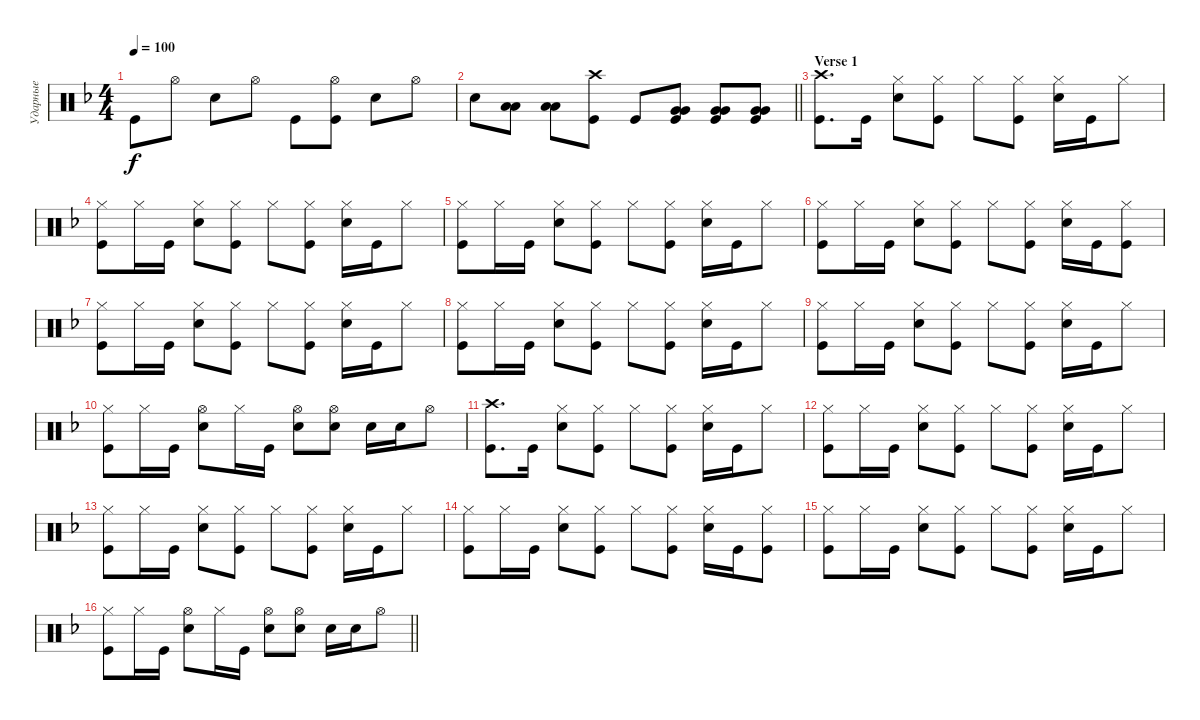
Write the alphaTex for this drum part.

\track ("Ударные" "Ударные") {instrument percussion}
\staff {score}
\articulation defaults
\ts (4 4)
\tempo 100
\clef neutral
\ks dminor "Kick (hit)".8{dy f} "Hi-Hat (open)".8 "Snare (hit) 2".8 "Hi-Hat (open)".8 "Kick (hit)".8
("Hi-Hat (open)" "Kick (hit)").8 "Snare (hit) 2".8 "Hi-Hat (open)".8 |
\barLineRight lightlight "Snare (hit) 2".8
("Low Tom (hit)" "Low Tom (hit)").8{bd 120} ("Low Tom (hit)" "Low Tom (hit)").8{bd 120} ("Kick (hit)" "Crash high (hit)").8 "Kick (hit)".8 ("Kick (hit)" "Very Low Tom (hit)" "Very Low Tom (hit)").8{bd 120} ("Kick (hit)" "Very Low Tom (hit)" "Very Low Tom (hit)").8{bd 120} ("Kick (hit)" "Very Low Tom (hit)" "Very Low Tom (hit)").8{bd 120} |
\section ("" "Verse 1")
("Kick (hit)" "Crash high (hit)").8{d} "Kick (hit)".16 ("Snare (hit) 2" "Hi-Hat (closed)").8 ("Kick (hit)" "Hi-Hat (closed)").8 "Hi-Hat (closed)".8 ("Hi-Hat (closed)" "Kick (hit)").8 ("Snare (hit) 2" "Hi-Hat (closed)").16 "Kick (hit)".16 "Hi-Hat (closed)".8 |
("Kick (hit)" "Hi-Hat (closed)").8 "Hi-Hat (closed)".16 "Kick (hit)".16 ("Snare (hit) 2" "Hi-Hat (closed)").8 ("Kick (hit)" "Hi-Hat (closed)").8 "Hi-Hat (closed)".8 ("Hi-Hat (closed)" "Kick (hit)").8 ("Snare (hit) 2" "Hi-Hat (closed)").16 "Kick (hit)".16 "Hi-Hat (closed)".8 |
("Kick (hit)" "Hi-Hat (closed)").8 "Hi-Hat (closed)".16 "Kick (hit)".16 ("Snare (hit) 2" "Hi-Hat (closed)").8 ("Kick (hit)" "Hi-Hat (closed)").8 "Hi-Hat (closed)".8 ("Hi-Hat (closed)" "Kick (hit)").8 ("Snare (hit) 2" "Hi-Hat (closed)").16 "Kick (hit)".16 "Hi-Hat (closed)".8 |
("Kick (hit)" "Hi-Hat (closed)").8 "Hi-Hat (closed)".16 "Kick (hit)".16 ("Snare (hit) 2" "Hi-Hat (closed)").8 ("Kick (hit)" "Hi-Hat (closed)").8 "Hi-Hat (closed)".8 ("Hi-Hat (closed)" "Kick (hit)").8 ("Snare (hit) 2" "Hi-Hat (closed)").16 "Kick (hit)".16 ("Hi-Hat (closed)" "Kick (hit)").8 |
("Kick (hit)" "Hi-Hat (closed)").8 "Hi-Hat (closed)".16 "Kick (hit)".16 ("Snare (hit) 2" "Hi-Hat (closed)").8 ("Kick (hit)" "Hi-Hat (closed)").8 "Hi-Hat (closed)".8 ("Hi-Hat (closed)" "Kick (hit)").8 ("Snare (hit) 2" "Hi-Hat (closed)").16 "Kick (hit)".16 "Hi-Hat (closed)".8 |
("Kick (hit)" "Hi-Hat (closed)").8 "Hi-Hat (closed)".16 "Kick (hit)".16 ("Snare (hit) 2" "Hi-Hat (closed)").8 ("Kick (hit)" "Hi-Hat (closed)").8 "Hi-Hat (closed)".8 ("Hi-Hat (closed)" "Kick (hit)").8 ("Snare (hit) 2" "Hi-Hat (closed)").16 "Kick (hit)".16 "Hi-Hat (closed)".8 |
("Kick (hit)" "Hi-Hat (closed)").8 "Hi-Hat (closed)".16 "Kick (hit)".16 ("Snare (hit) 2" "Hi-Hat (closed)").8 ("Kick (hit)" "Hi-Hat (closed)").8 "Hi-Hat (closed)".8 ("Hi-Hat (closed)" "Kick (hit)").8 ("Snare (hit) 2" "Hi-Hat (closed)").16 "Kick (hit)".16 "Hi-Hat (closed)".8 |
("Kick (hit)" "Hi-Hat (closed)").8 "Hi-Hat (closed)".16 "Kick (hit)".16 ("Snare (hit) 2" "Hi-Hat (open)").8 "Hi-Hat (closed)".16 "Kick (hit)".16 ("Snare (hit) 2" "Hi-Hat (open)").8 ("Snare (hit) 2" "Hi-Hat (open)").8 "Snare (hit) 2".16 "Snare (hit) 2".16 "Hi-Hat (open)".8 |
("Kick (hit)" "Crash high (hit)").8{d} "Kick (hit)".16 ("Snare (hit) 2" "Hi-Hat (closed)").8 ("Kick (hit)" "Hi-Hat (closed)").8 "Hi-Hat (closed)".8 ("Hi-Hat (closed)" "Kick (hit)").8 ("Snare (hit) 2" "Hi-Hat (closed)").16 "Kick (hit)".16 "Hi-Hat (closed)".8 |
("Kick (hit)" "Hi-Hat (closed)").8 "Hi-Hat (closed)".16 "Kick (hit)".16 ("Snare (hit) 2" "Hi-Hat (closed)").8 ("Kick (hit)" "Hi-Hat (closed)").8 "Hi-Hat (closed)".8 ("Hi-Hat (closed)" "Kick (hit)").8 ("Snare (hit) 2" "Hi-Hat (closed)").16 "Kick (hit)".16 "Hi-Hat (closed)".8 |
("Kick (hit)" "Hi-Hat (closed)").8 "Hi-Hat (closed)".16 "Kick (hit)".16 ("Snare (hit) 2" "Hi-Hat (closed)").8 ("Kick (hit)" "Hi-Hat (closed)").8 "Hi-Hat (closed)".8 ("Hi-Hat (closed)" "Kick (hit)").8 ("Snare (hit) 2" "Hi-Hat (closed)").16 "Kick (hit)".16 "Hi-Hat (closed)".8 |
("Kick (hit)" "Hi-Hat (closed)").8 "Hi-Hat (closed)".16 "Kick (hit)".16 ("Snare (hit) 2" "Hi-Hat (closed)").8 ("Kick (hit)" "Hi-Hat (closed)").8 "Hi-Hat (closed)".8 ("Hi-Hat (closed)" "Kick (hit)").8 ("Snare (hit) 2" "Hi-Hat (closed)").16 "Kick (hit)".16 ("Hi-Hat (closed)" "Kick (hit)").8 |
("Kick (hit)" "Hi-Hat (closed)").8 "Hi-Hat (closed)".16 "Kick (hit)".16 ("Snare (hit) 2" "Hi-Hat (closed)").8 ("Kick (hit)" "Hi-Hat (closed)").8 "Hi-Hat (closed)".8 ("Hi-Hat (closed)" "Kick (hit)").8 ("Snare (hit) 2" "Hi-Hat (closed)").16 "Kick (hit)".16 "Hi-Hat (closed)".8 |
\barLineRight lightlight
("Kick (hit)" "Hi-Hat (closed)").8 "Hi-Hat (closed)".16 "Kick (hit)".16 ("Snare (hit) 2" "Hi-Hat (open)").8 "Hi-Hat (closed)".16 "Kick (hit)".16 ("Snare (hit) 2" "Hi-Hat (open)").8 ("Snare (hit) 2" "Hi-Hat (open)").8 "Snare (hit) 2".16 "Snare (hit) 2".16 "Hi-Hat (open)".8
